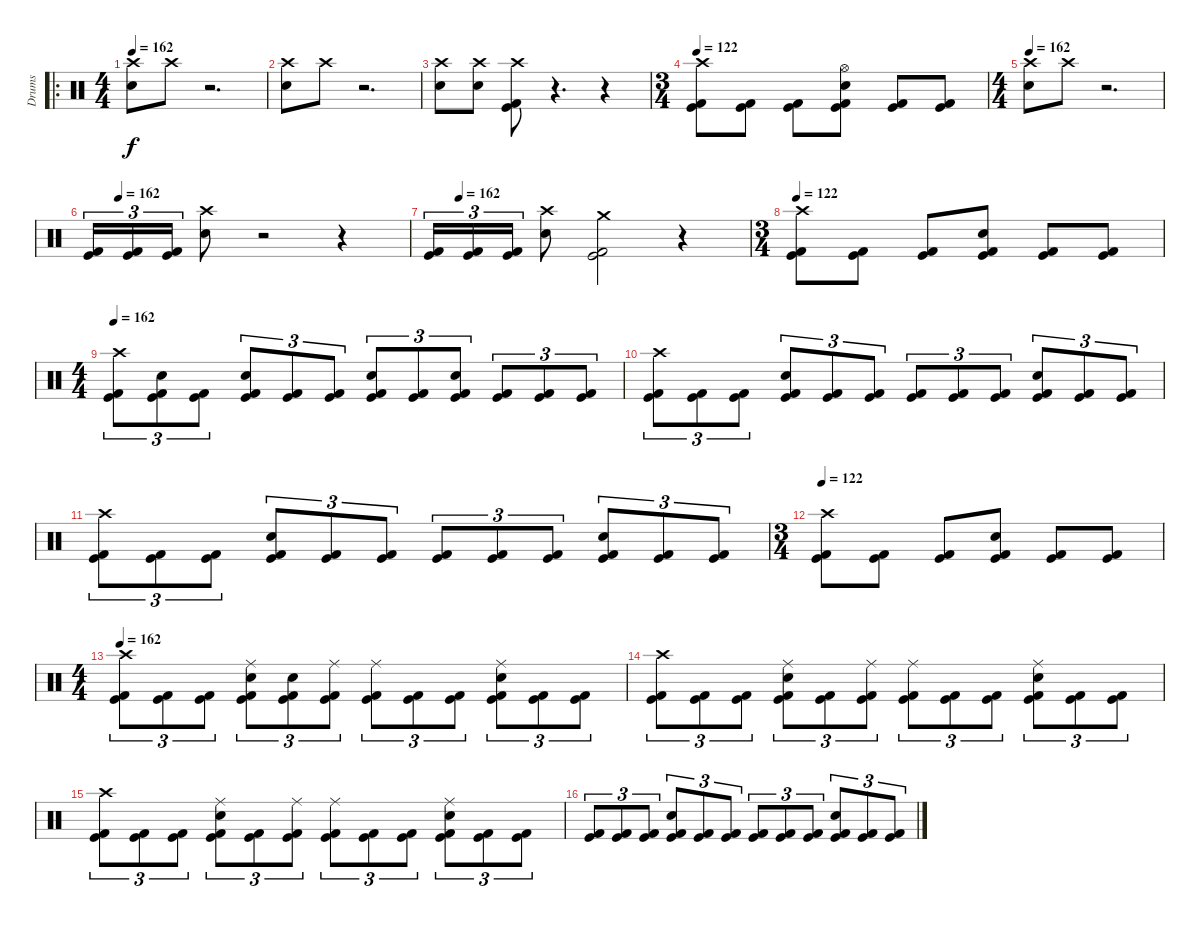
\track ("Drums" "Drums") {instrument percussion}
\staff {score}
\articulation defaults
\ro
\ts (4 4)
\tempo 162
\clef neutral
\ks c
("Crash high (hit)" "Snare (hit) 2").8{dy f volume 16} "Crash high (hit)".8{volume 0} r.2{d} |
("Crash high (hit)" "Snare (hit) 2").8{volume 16} "Crash high (hit)".8{volume 0} r.2{d} |
("Crash high (hit)" "Snare (hit) 2").8{volume 16} ("Crash high (hit)" "Snare (hit) 2").8 ("Crash high (hit)" "Kick (hit)" "Kick (hit) 2").8{volume 0} r.4{d} r.4 |
\ts (3 4)
\tempo 122
("Crash high (hit)" "Kick (hit)" "Kick (hit) 2").8{volume 16} ("Kick (hit)" "Kick (hit) 2").8{volume 16} ("Kick (hit)" "Kick (hit) 2").8{volume 16} ("Hi-Hat (open)" "Snare (hit) 2" "Kick (hit)" "Kick (hit) 2").8{volume 16} ("Kick (hit)" "Kick (hit) 2").8{volume 16} ("Kick (hit)" "Kick (hit) 2").8{volume 16} |
\ts (4 4)
\tempo 162
("Crash high (hit)" "Snare (hit) 2").8{volume 16} "Crash high (hit)".8{volume 0} r.2{d} |
\tempo (162 0.08333333333333333)
("Kick (hit)" "Kick (hit) 2").16{tu (3 2) volume 16} ("Kick (hit)" "Kick (hit) 2").16{tu (3 2)} ("Kick (hit)" "Kick (hit) 2").16{tu (3 2) volume 16} ("Crash high (hit)" "Snare (hit) 2").8 r.2 r.4 |
\tempo (162 0.08333333333333333)
("Kick (hit)" "Kick (hit) 2").16{tu (3 2) volume 16} ("Kick (hit)" "Kick (hit) 2").16{tu (3 2)} ("Kick (hit)" "Kick (hit) 2").16{tu (3 2) volume 16} ("Crash high (hit)" "Snare (hit) 2").8 ("Crash medium (hit)" "Kick (hit)" "Kick (hit) 2").2 r.4 |
\ts (3 4)
\tempo 122
("Crash high (hit)" "Kick (hit)" "Kick (hit) 2").8{volume 16} ("Kick (hit)" "Kick (hit) 2").8{volume 16} ("Kick (hit)" "Kick (hit) 2").8{volume 16} ("Snare (hit) 2" "Kick (hit)" "Kick (hit) 2").8{volume 16} ("Kick (hit)" "Kick (hit) 2").8{volume 16} ("Kick (hit)" "Kick (hit) 2").8{volume 16} |
\ts (4 4)
\tempo 162
("Crash high (hit)" "Kick (hit)" "Kick (hit) 2").8{tu (3 2)} ("Snare (hit) 2" "Kick (hit)" "Kick (hit) 2").8{tu (3 2)} ("Kick (hit)" "Kick (hit) 2").8{tu (3 2)} ("Snare (hit) 2" "Kick (hit)" "Kick (hit) 2").8{tu (3 2)} ("Kick (hit)" "Kick (hit) 2").8{tu (3 2)} ("Kick (hit)" "Kick (hit) 2").8{tu (3 2)} ("Snare (hit) 2" "Kick (hit)" "Kick (hit) 2").8{tu (3 2)} ("Kick (hit)" "Kick (hit) 2").8{tu (3 2)} ("Snare (hit) 2" "Kick (hit)" "Kick (hit) 2").8{tu (3 2)} ("Kick (hit)" "Kick (hit) 2").8{tu (3 2)} ("Kick (hit)" "Kick (hit) 2").8{tu (3 2)} ("Kick (hit)" "Kick (hit) 2").8{tu (3 2)} |
("Crash high (hit)" "Kick (hit)" "Kick (hit) 2").8{tu (3 2)} ("Kick (hit)" "Kick (hit) 2").8{tu (3 2)} ("Kick (hit)" "Kick (hit) 2").8{tu (3 2)} ("Snare (hit) 2" "Kick (hit)" "Kick (hit) 2").8{tu (3 2)} ("Kick (hit)" "Kick (hit) 2").8{tu (3 2)} ("Kick (hit)" "Kick (hit) 2").8{tu (3 2)} ("Kick (hit)" "Kick (hit) 2").8{tu (3 2)} ("Kick (hit)" "Kick (hit) 2").8{tu (3 2)} ("Kick (hit)" "Kick (hit) 2").8{tu (3 2)} ("Snare (hit) 2" "Kick (hit)" "Kick (hit) 2").8{tu (3 2)} ("Kick (hit)" "Kick (hit) 2").8{tu (3 2)} ("Kick (hit)" "Kick (hit) 2").8{tu (3 2)} |
("Crash high (hit)" "Kick (hit)" "Kick (hit) 2").8{tu (3 2)} ("Kick (hit)" "Kick (hit) 2").8{tu (3 2)} ("Kick (hit)" "Kick (hit) 2").8{tu (3 2)} ("Snare (hit) 2" "Kick (hit)" "Kick (hit) 2").8{tu (3 2)} ("Kick (hit)" "Kick (hit) 2").8{tu (3 2)} ("Kick (hit)" "Kick (hit) 2").8{tu (3 2)} ("Kick (hit)" "Kick (hit) 2").8{tu (3 2)} ("Kick (hit)" "Kick (hit) 2").8{tu (3 2)} ("Kick (hit)" "Kick (hit) 2").8{tu (3 2)} ("Snare (hit) 2" "Kick (hit)" "Kick (hit) 2").8{tu (3 2)} ("Kick (hit)" "Kick (hit) 2").8{tu (3 2)} ("Kick (hit)" "Kick (hit) 2").8{tu (3 2)} |
\ts (3 4)
\tempo 122
("Crash high (hit)" "Kick (hit)" "Kick (hit) 2").8{volume 16} ("Kick (hit)" "Kick (hit) 2").8{volume 16} ("Kick (hit)" "Kick (hit) 2").8{volume 16} ("Snare (hit) 2" "Kick (hit)" "Kick (hit) 2").8{volume 16} ("Kick (hit)" "Kick (hit) 2").8{volume 16} ("Kick (hit)" "Kick (hit) 2").8{volume 16} |
\ts (4 4)
\tempo 162
("Crash high (hit)" "Kick (hit)" "Kick (hit) 2").8{tu (3 2)} ("Kick (hit)" "Kick (hit) 2").8{tu (3 2)} ("Kick (hit)" "Kick (hit) 2").8{tu (3 2)} ("Ride (middle)" "Snare (hit) 2" "Kick (hit)" "Kick (hit) 2").8{tu (3 2)} ("Snare (hit) 2" "Kick (hit)" "Kick (hit) 2").8{tu (3 2)} ("Ride (middle)" "Kick (hit)" "Kick (hit) 2").8{tu (3 2)} ("Ride (middle)" "Kick (hit)" "Kick (hit) 2").8{tu (3 2)} ("Kick (hit)" "Kick (hit) 2").8{tu (3 2)} ("Kick (hit)" "Kick (hit) 2").8{tu (3 2)} ("Ride (middle)" "Snare (hit) 2" "Kick (hit)" "Kick (hit) 2").8{tu (3 2)} ("Kick (hit)" "Kick (hit) 2").8{tu (3 2)} ("Kick (hit)" "Kick (hit) 2").8{tu (3 2)} |
("Crash high (hit)" "Kick (hit)" "Kick (hit) 2").8{tu (3 2)} ("Kick (hit)" "Kick (hit) 2").8{tu (3 2)} ("Kick (hit)" "Kick (hit) 2").8{tu (3 2)} ("Ride (middle)" "Snare (hit) 2" "Kick (hit)" "Kick (hit) 2").8{tu (3 2)} ("Kick (hit)" "Kick (hit) 2").8{tu (3 2)} ("Ride (middle)" "Kick (hit)" "Kick (hit) 2").8{tu (3 2)} ("Ride (middle)" "Kick (hit)" "Kick (hit) 2").8{tu (3 2)} ("Kick (hit)" "Kick (hit) 2").8{tu (3 2)} ("Kick (hit)" "Kick (hit) 2").8{tu (3 2)} ("Ride (middle)" "Snare (hit) 2" "Kick (hit)" "Kick (hit) 2").8{tu (3 2)} ("Kick (hit)" "Kick (hit) 2").8{tu (3 2)} ("Kick (hit)" "Kick (hit) 2").8{tu (3 2)} |
("Crash high (hit)" "Kick (hit)" "Kick (hit) 2").8{tu (3 2)} ("Kick (hit)" "Kick (hit) 2").8{tu (3 2)} ("Kick (hit)" "Kick (hit) 2").8{tu (3 2)} ("Ride (middle)" "Snare (hit) 2" "Kick (hit)" "Kick (hit) 2").8{tu (3 2)} ("Kick (hit)" "Kick (hit) 2").8{tu (3 2)} ("Ride (middle)" "Kick (hit)" "Kick (hit) 2").8{tu (3 2)} ("Ride (middle)" "Kick (hit)" "Kick (hit) 2").8{tu (3 2)} ("Kick (hit)" "Kick (hit) 2").8{tu (3 2)} ("Kick (hit)" "Kick (hit) 2").8{tu (3 2)} ("Ride (middle)" "Snare (hit) 2" "Kick (hit)" "Kick (hit) 2").8{tu (3 2)} ("Kick (hit)" "Kick (hit) 2").8{tu (3 2)} ("Kick (hit)" "Kick (hit) 2").8{tu (3 2)} |
("Kick (hit)" "Kick (hit) 2").8{tu (3 2)} ("Kick (hit)" "Kick (hit) 2").8{tu (3 2)} ("Kick (hit)" "Kick (hit) 2").8{tu (3 2)} ("Snare (hit) 2" "Kick (hit)" "Kick (hit) 2").8{tu (3 2)} ("Kick (hit)" "Kick (hit) 2").8{tu (3 2)} ("Kick (hit)" "Kick (hit) 2").8{tu (3 2)} ("Kick (hit)" "Kick (hit) 2").8{tu (3 2)} ("Kick (hit)" "Kick (hit) 2").8{tu (3 2)} ("Kick (hit)" "Kick (hit) 2").8{tu (3 2)} ("Snare (hit) 2" "Kick (hit)" "Kick (hit) 2").8{tu (3 2)} ("Kick (hit)" "Kick (hit) 2").8{tu (3 2)} ("Kick (hit)" "Kick (hit) 2").8{tu (3 2)}
